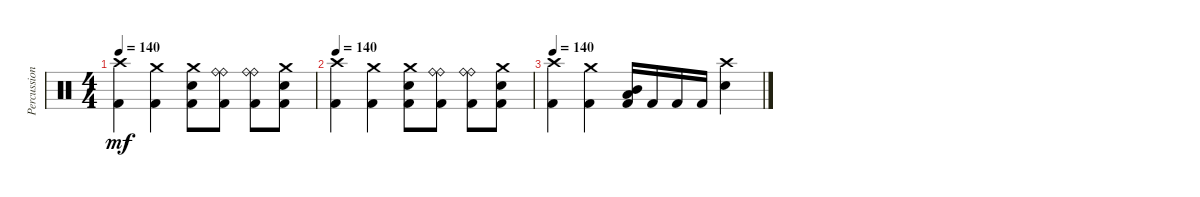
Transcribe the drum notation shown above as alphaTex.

\track ("Percussion" "Percussion") {instrument percussion}
\staff {score}
\articulation defaults
\ts (4 4)
\tempo 140
\clef neutral
\ks c
("Crash high (hit)" "Kick (hit) 2").4{dy mf} ("Crash medium (hit)" "Kick (hit) 2").4 ("Crash medium (hit)" "Electric Snare (hit)" "Kick (hit) 2").8 ("Ride (bell)" "Ride (bell)" "Kick (hit) 2").8 ("Ride (bell)" "Ride (bell)" "Kick (hit) 2").8 ("Crash medium (hit)" "Electric Snare (hit)" "Kick (hit) 2").8 |
\tempo 140
("Crash high (hit)" "Kick (hit) 2").4 ("Crash medium (hit)" "Kick (hit) 2").4 ("Crash medium (hit)" "Electric Snare (hit)" "Kick (hit) 2").8 ("Ride (bell)" "Ride (bell)" "Kick (hit) 2").8 ("Ride (bell)" "Ride (bell)" "Kick (hit) 2").8 ("Crash medium (hit)" "Electric Snare (hit)" "Kick (hit) 2").8 |
\tempo 140
("Crash high (hit)" "Kick (hit) 2").4 ("Crash medium (hit)" "Kick (hit) 2").4 ("Mid Tom (hit)" "Low Tom (hit)" "Kick (hit) 2").16 "Kick (hit) 2".16 "Kick (hit) 2".16 "Kick (hit) 2".16 ("Crash high (hit)" "Electric Snare (hit)").4
